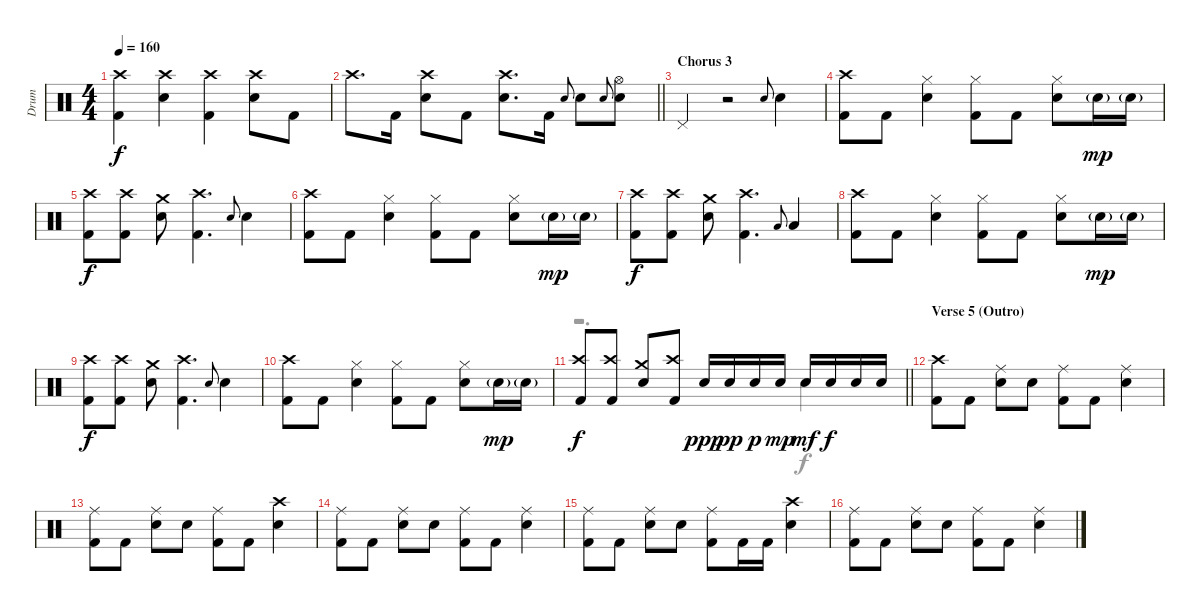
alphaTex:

\track ("Drum" "Drum") {instrument percussion}
\staff {score}
\articulation defaults
\voice
\ts (4 4)
\tempo 160
\clef neutral
\ks c
("Crash high (hit)" "Kick (hit) 2").4{dy f} ("Crash high (hit)" "Electric Snare (hit)").4 ("Crash high (hit)" "Kick (hit) 2").4 ("Crash high (hit)" "Electric Snare (hit)").8 "Kick (hit) 2".8 |
\barLineRight lightlight "Crash high (hit)".8{d} "Kick (hit) 2".16
("Crash high (hit)" "Electric Snare (hit)").8 "Kick (hit) 2".8 ("Crash high (hit)" "Electric Snare (hit)").8{d} "Kick (hit) 2".16 "Electric Snare (hit)".8{gr onbeat} "Electric Snare (hit)".8 "Electric Snare (hit)".8{gr onbeat} ("Hi-Hat (open)" "Electric Snare (hit)").8 |
\section ("" "Chorus 3")
"Pedal Hi-Hat (hit)".4 r.2 "Electric Snare (hit)".8{gr onbeat} "Electric Snare (hit)".4 |
("Crash high (hit)" "Kick (hit) 2").8 "Kick (hit) 2".8 ("Hi-Hat (closed)" "Electric Snare (hit)").4 ("Hi-Hat (closed)" "Kick (hit) 2").8 "Kick (hit) 2".8 ("Hi-Hat (closed)" "Electric Snare (hit)").8 "Electric Snare (hit)"{g}.16{dy mp} "Electric Snare (hit)"{g}.16 |
("Crash high (hit)" "Kick (hit) 2").8{dy f} ("Crash high (hit)" "Kick (hit) 2").8 ("Crash medium (hit)" "Electric Snare (hit)").8 ("Crash high (hit)" "Kick (hit) 2").4{d} "Electric Snare (hit)".8{gr onbeat} "Electric Snare (hit)".4 |
("Crash high (hit)" "Kick (hit) 2").8 "Kick (hit) 2".8 ("Hi-Hat (closed)" "Electric Snare (hit)").4 ("Hi-Hat (closed)" "Kick (hit) 2").8 "Kick (hit) 2".8 ("Hi-Hat (closed)" "Electric Snare (hit)").8 "Electric Snare (hit)"{g}.16{dy mp} "Electric Snare (hit)"{g}.16 |
("Crash high (hit)" "Kick (hit) 2").8{dy f} ("Crash high (hit)" "Kick (hit) 2").8 ("Crash medium (hit)" "Electric Snare (hit)").8 ("Crash high (hit)" "Kick (hit) 2").4{d} "Low Tom (hit)".8{gr onbeat} "Low Tom (hit)".4 |
("Crash high (hit)" "Kick (hit) 2").8 "Kick (hit) 2".8 ("Hi-Hat (closed)" "Electric Snare (hit)").4 ("Hi-Hat (closed)" "Kick (hit) 2").8 "Kick (hit) 2".8 ("Hi-Hat (closed)" "Electric Snare (hit)").8 "Electric Snare (hit)"{g}.16{dy mp} "Electric Snare (hit)"{g}.16 |
("Crash high (hit)" "Kick (hit) 2").8{dy f} ("Crash high (hit)" "Kick (hit) 2").8 ("Crash medium (hit)" "Electric Snare (hit)").8 ("Crash high (hit)" "Kick (hit) 2").4{d} "Electric Snare (hit)".8{gr onbeat} "Electric Snare (hit)".4 |
("Crash high (hit)" "Kick (hit) 2").8 "Kick (hit) 2".8 ("Hi-Hat (closed)" "Electric Snare (hit)").4 ("Hi-Hat (closed)" "Kick (hit) 2").8 "Kick (hit) 2".8 ("Hi-Hat (closed)" "Electric Snare (hit)").8 "Electric Snare (hit)"{g}.16{dy mp} "Electric Snare (hit)"{g}.16 |
\barLineRight lightlight
("Crash high (hit)" "Kick (hit) 2").8{dy f} ("Crash high (hit)" "Kick (hit) 2").8 ("Crash medium (hit)" "Electric Snare (hit)").8 ("Crash high (hit)" "Kick (hit) 2").8 "Electric Snare (hit)".16{dy ppp} "Electric Snare (hit)".16{dy pp} "Electric Snare (hit)".16{dy p} "Electric Snare (hit)".16{dy mp} "Electric Snare (hit)".16{dy mf} "Electric Snare (hit)".16{dy f} "Electric Snare (hit)".16 "Electric Snare (hit)".16 |
\section ("" "Verse 5 (Outro)")
("Crash high (hit)" "Kick (hit) 2").8 "Kick (hit) 2".8 ("Ride (middle)" "Electric Snare (hit)").8 "Electric Snare (hit)".8 ("Ride (middle)" "Kick (hit) 2").8 "Kick (hit) 2".8 ("Ride (middle)" "Electric Snare (hit)").4 |
("Ride (middle)" "Kick (hit) 2").8 "Kick (hit) 2".8 ("Ride (middle)" "Electric Snare (hit)").8 "Electric Snare (hit)".8 ("Ride (middle)" "Kick (hit) 2").8 "Kick (hit) 2".8 ("Crash high (hit)" "Electric Snare (hit)").4 |
("Ride (middle)" "Kick (hit) 2").8 "Kick (hit) 2".8 ("Ride (middle)" "Electric Snare (hit)").8 "Electric Snare (hit)".8 ("Ride (middle)" "Kick (hit) 2").8 "Kick (hit) 2".8 ("Ride (middle)" "Electric Snare (hit)").4 |
("Ride (middle)" "Kick (hit) 2").8 "Kick (hit) 2".8 ("Ride (middle)" "Electric Snare (hit)").8 "Electric Snare (hit)".8 ("Ride (middle)" "Kick (hit) 2").8 "Kick (hit) 2".16 "Kick (hit) 2".16 ("Crash high (hit)" "Electric Snare (hit)").4 |
("Ride (middle)" "Kick (hit) 2").8 "Kick (hit) 2".8 ("Ride (middle)" "Electric Snare (hit)").8 "Electric Snare (hit)".8 ("Ride (middle)" "Kick (hit) 2").8 "Kick (hit) 2".8 ("Ride (middle)" "Electric Snare (hit)").4
\voice
\clef neutral
\ottava regular
\simile none
\ks c
|
\barLineRight lightlight
|
|
|
|
|
|
|
|
|
\barLineRight lightlight
r.2{d} "Electric Snare (hit)".4 |
|
|
|
|
